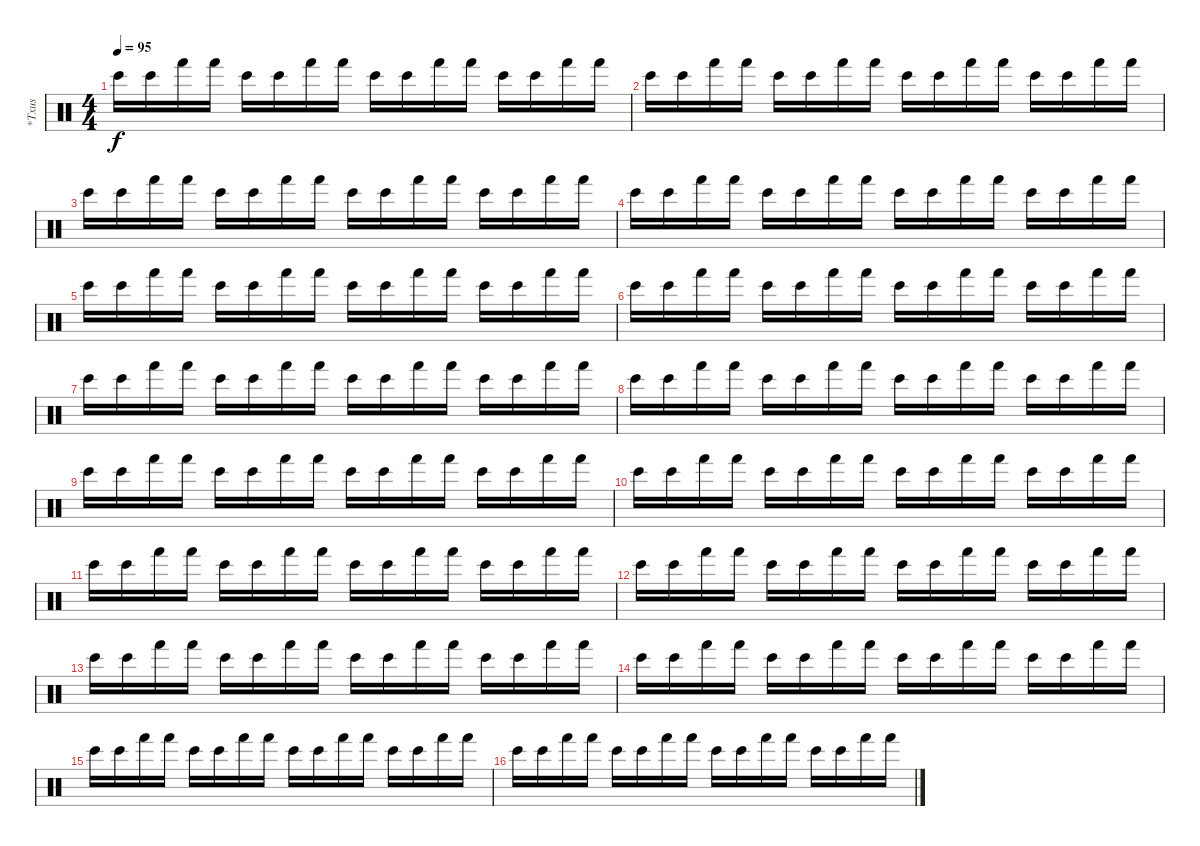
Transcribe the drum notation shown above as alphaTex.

\track ("*Txus" "*Txus") {instrument percussion}
\staff {score}
\articulation defaults
\ts (4 4)
\tempo 95
\clef neutral
\ks c "Bongo High (hit)".16{dy f} "Bongo High (hit)".16 "Hand (hit)".16 "Hand (hit)".16 "Bongo High (hit)".16 "Bongo High (hit)".16 "Hand (hit)".16 "Hand (hit)".16 "Bongo High (hit)".16 "Bongo High (hit)".16 "Hand (hit)".16 "Hand (hit)".16 "Bongo High (hit)".16 "Bongo High (hit)".16 "Hand (hit)".16 "Hand (hit)".16
|
"Bongo High (hit)".16 "Bongo High (hit)".16 "Hand (hit)".16 "Hand (hit)".16 "Bongo High (hit)".16 "Bongo High (hit)".16 "Hand (hit)".16 "Hand (hit)".16 "Bongo High (hit)".16 "Bongo High (hit)".16 "Hand (hit)".16 "Hand (hit)".16 "Bongo High (hit)".16 "Bongo High (hit)".16 "Hand (hit)".16 "Hand (hit)".16 |
"Bongo High (hit)".16 "Bongo High (hit)".16 "Hand (hit)".16 "Hand (hit)".16 "Bongo High (hit)".16 "Bongo High (hit)".16 "Hand (hit)".16 "Hand (hit)".16 "Bongo High (hit)".16 "Bongo High (hit)".16 "Hand (hit)".16 "Hand (hit)".16 "Bongo High (hit)".16 "Bongo High (hit)".16 "Hand (hit)".16 "Hand (hit)".16 |
"Bongo High (hit)".16 "Bongo High (hit)".16 "Hand (hit)".16 "Hand (hit)".16 "Bongo High (hit)".16 "Bongo High (hit)".16 "Hand (hit)".16 "Hand (hit)".16 "Bongo High (hit)".16 "Bongo High (hit)".16 "Hand (hit)".16 "Hand (hit)".16 "Bongo High (hit)".16 "Bongo High (hit)".16 "Hand (hit)".16 "Hand (hit)".16 |
"Bongo High (hit)".16 "Bongo High (hit)".16 "Hand (hit)".16 "Hand (hit)".16 "Bongo High (hit)".16 "Bongo High (hit)".16 "Hand (hit)".16 "Hand (hit)".16 "Bongo High (hit)".16 "Bongo High (hit)".16 "Hand (hit)".16 "Hand (hit)".16 "Bongo High (hit)".16 "Bongo High (hit)".16 "Hand (hit)".16 "Hand (hit)".16 |
"Bongo High (hit)".16 "Bongo High (hit)".16 "Hand (hit)".16 "Hand (hit)".16 "Bongo High (hit)".16 "Bongo High (hit)".16 "Hand (hit)".16 "Hand (hit)".16 "Bongo High (hit)".16 "Bongo High (hit)".16 "Hand (hit)".16 "Hand (hit)".16 "Bongo High (hit)".16 "Bongo High (hit)".16 "Hand (hit)".16 "Hand (hit)".16 |
"Bongo High (hit)".16 "Bongo High (hit)".16 "Hand (hit)".16 "Hand (hit)".16 "Bongo High (hit)".16 "Bongo High (hit)".16 "Hand (hit)".16 "Hand (hit)".16 "Bongo High (hit)".16 "Bongo High (hit)".16 "Hand (hit)".16 "Hand (hit)".16 "Bongo High (hit)".16 "Bongo High (hit)".16 "Hand (hit)".16 "Hand (hit)".16 |
"Bongo High (hit)".16 "Bongo High (hit)".16 "Hand (hit)".16 "Hand (hit)".16 "Bongo High (hit)".16 "Bongo High (hit)".16 "Hand (hit)".16 "Hand (hit)".16 "Bongo High (hit)".16 "Bongo High (hit)".16 "Hand (hit)".16 "Hand (hit)".16 "Bongo High (hit)".16 "Bongo High (hit)".16 "Hand (hit)".16 "Hand (hit)".16 |
"Bongo High (hit)".16 "Bongo High (hit)".16 "Hand (hit)".16 "Hand (hit)".16 "Bongo High (hit)".16 "Bongo High (hit)".16 "Hand (hit)".16 "Hand (hit)".16 "Bongo High (hit)".16 "Bongo High (hit)".16 "Hand (hit)".16 "Hand (hit)".16 "Bongo High (hit)".16 "Bongo High (hit)".16 "Hand (hit)".16 "Hand (hit)".16 |
"Bongo High (hit)".16 "Bongo High (hit)".16 "Hand (hit)".16 "Hand (hit)".16 "Bongo High (hit)".16 "Bongo High (hit)".16 "Hand (hit)".16 "Hand (hit)".16 "Bongo High (hit)".16 "Bongo High (hit)".16 "Hand (hit)".16 "Hand (hit)".16 "Bongo High (hit)".16 "Bongo High (hit)".16 "Hand (hit)".16 "Hand (hit)".16 |
"Bongo High (hit)".16 "Bongo High (hit)".16 "Hand (hit)".16 "Hand (hit)".16 "Bongo High (hit)".16 "Bongo High (hit)".16 "Hand (hit)".16 "Hand (hit)".16 "Bongo High (hit)".16 "Bongo High (hit)".16 "Hand (hit)".16 "Hand (hit)".16 "Bongo High (hit)".16 "Bongo High (hit)".16 "Hand (hit)".16 "Hand (hit)".16 |
"Bongo High (hit)".16 "Bongo High (hit)".16 "Hand (hit)".16 "Hand (hit)".16 "Bongo High (hit)".16 "Bongo High (hit)".16 "Hand (hit)".16 "Hand (hit)".16 "Bongo High (hit)".16 "Bongo High (hit)".16 "Hand (hit)".16 "Hand (hit)".16 "Bongo High (hit)".16 "Bongo High (hit)".16 "Hand (hit)".16 "Hand (hit)".16 |
"Bongo High (hit)".16 "Bongo High (hit)".16 "Hand (hit)".16 "Hand (hit)".16 "Bongo High (hit)".16 "Bongo High (hit)".16 "Hand (hit)".16 "Hand (hit)".16 "Bongo High (hit)".16 "Bongo High (hit)".16 "Hand (hit)".16 "Hand (hit)".16 "Bongo High (hit)".16 "Bongo High (hit)".16 "Hand (hit)".16 "Hand (hit)".16 |
"Bongo High (hit)".16 "Bongo High (hit)".16 "Hand (hit)".16 "Hand (hit)".16 "Bongo High (hit)".16 "Bongo High (hit)".16 "Hand (hit)".16 "Hand (hit)".16 "Bongo High (hit)".16 "Bongo High (hit)".16 "Hand (hit)".16 "Hand (hit)".16 "Bongo High (hit)".16 "Bongo High (hit)".16 "Hand (hit)".16 "Hand (hit)".16 |
"Bongo High (hit)".16 "Bongo High (hit)".16 "Hand (hit)".16 "Hand (hit)".16 "Bongo High (hit)".16 "Bongo High (hit)".16 "Hand (hit)".16 "Hand (hit)".16 "Bongo High (hit)".16 "Bongo High (hit)".16 "Hand (hit)".16 "Hand (hit)".16 "Bongo High (hit)".16 "Bongo High (hit)".16 "Hand (hit)".16 "Hand (hit)".16 |
"Bongo High (hit)".16 "Bongo High (hit)".16 "Hand (hit)".16 "Hand (hit)".16 "Bongo High (hit)".16 "Bongo High (hit)".16 "Hand (hit)".16 "Hand (hit)".16 "Bongo High (hit)".16 "Bongo High (hit)".16 "Hand (hit)".16 "Hand (hit)".16 "Bongo High (hit)".16 "Bongo High (hit)".16 "Hand (hit)".16 "Hand (hit)".16
